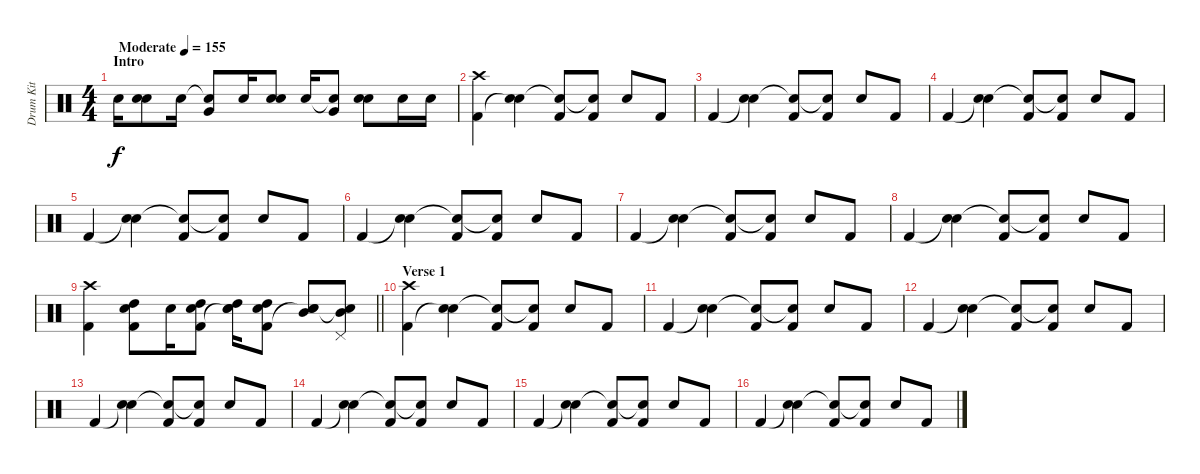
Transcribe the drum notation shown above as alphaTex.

\track ("Drum Kit" "Drum Kit") {instrument percussion}
\staff {score}
\articulation defaults
\ts (4 4)
\section ("" "Intro")
\tempo (155 "Moderate")
\clef neutral
\ks c "Snare (hit) 2".16{dy f}
("Snare (hit) 2" "Snare (hit) 2").8 "Snare (hit) 2".16 ("Snare (hit) 2"{t} "Very Low Tom (hit)").8 "Snare (hit) 2".16 ("Snare (hit) 2" "Snare (hit) 2").8 "Snare (hit) 2".16 ("Snare (hit) 2"{t} "Very Low Tom (hit)").8 ("Snare (hit) 2" "Snare (hit) 2").8 "Snare (hit) 2".16 "Snare (hit) 2".16 |
("Kick (hit) 2" "Crash high (hit)").4 ("Snare (hit)"{t} "Snare (hit) 2").4 ("Kick (hit) 2" "Snare (hit)"{t}).8 ("Kick (hit) 2" "Snare (hit)"{t}).8 "Snare (hit) 2".8 "Kick (hit) 2".8 |
"Kick (hit) 2".4 ("Snare (hit)"{t} "Snare (hit) 2").4 ("Kick (hit) 2" "Snare (hit)"{t}).8 ("Kick (hit) 2" "Snare (hit)"{t}).8 "Snare (hit) 2".8 "Kick (hit) 2".8 |
"Kick (hit) 2".4 ("Snare (hit)"{t} "Snare (hit) 2").4 ("Kick (hit) 2" "Snare (hit)"{t}).8 ("Kick (hit) 2" "Snare (hit)"{t}).8 "Snare (hit) 2".8 "Kick (hit) 2".8 |
"Kick (hit) 2".4 ("Snare (hit)"{t} "Snare (hit) 2").4 ("Kick (hit) 2" "Snare (hit)"{t}).8 ("Kick (hit) 2" "Snare (hit)"{t}).8 "Snare (hit) 2".8 "Kick (hit) 2".8 |
"Kick (hit) 2".4 ("Snare (hit)"{t} "Snare (hit) 2").4 ("Kick (hit) 2" "Snare (hit)"{t}).8 ("Kick (hit) 2" "Snare (hit)"{t}).8 "Snare (hit) 2".8 "Kick (hit) 2".8 |
"Kick (hit) 2".4 ("Snare (hit)"{t} "Snare (hit) 2").4 ("Kick (hit) 2" "Snare (hit)"{t}).8 ("Kick (hit) 2" "Snare (hit)"{t}).8 "Snare (hit) 2".8 "Kick (hit) 2".8 |
"Kick (hit) 2".4 ("Snare (hit)"{t} "Snare (hit) 2").4 ("Kick (hit) 2" "Snare (hit)"{t}).8 ("Kick (hit) 2" "Snare (hit)"{t}).8 "Snare (hit) 2".8 "Kick (hit) 2".8 |
\barLineRight lightlight
("Kick (hit) 2" "Crash high (hit)").4 ("Kick (hit) 2" "High Tom (hit)" "Snare (hit) 2").8 "Snare (hit) 2".16 ("Kick (hit) 2" "High Tom (hit)" "Snare (hit) 2").8 ("Snare (hit)"{t} "High Tom (hit)" "Snare (hit) 2").16 ("Kick (hit) 2" "High Tom (hit)" "Snare (hit) 2").8 ("Snare (hit)"{t} "Mid Tom (hit)" "Snare (hit) 2").8 ("Snare (hit)"{t} "Mid Tom (hit)" "Pedal Hi-Hat (hit)").8 |
\section ("" "Verse 1")
("Kick (hit) 2" "Crash high (hit)").4 ("Snare (hit)"{t} "Snare (hit) 2").4 ("Kick (hit) 2" "Snare (hit)"{t}).8 ("Kick (hit) 2" "Snare (hit)"{t}).8 "Snare (hit) 2".8 "Kick (hit) 2".8 |
"Kick (hit) 2".4 ("Snare (hit)"{t} "Snare (hit) 2").4 ("Kick (hit) 2" "Snare (hit)"{t}).8 ("Kick (hit) 2" "Snare (hit)"{t}).8 "Snare (hit) 2".8 "Kick (hit) 2".8 |
"Kick (hit) 2".4 ("Snare (hit)"{t} "Snare (hit) 2").4 ("Kick (hit) 2" "Snare (hit)"{t}).8 ("Kick (hit) 2" "Snare (hit)"{t}).8 "Snare (hit) 2".8 "Kick (hit) 2".8 |
"Kick (hit) 2".4 ("Snare (hit)"{t} "Snare (hit) 2").4 ("Kick (hit) 2" "Snare (hit)"{t}).8 ("Kick (hit) 2" "Snare (hit)"{t}).8 "Snare (hit) 2".8 "Kick (hit) 2".8 |
"Kick (hit) 2".4 ("Snare (hit)"{t} "Snare (hit) 2").4 ("Kick (hit) 2" "Snare (hit)"{t}).8 ("Kick (hit) 2" "Snare (hit)"{t}).8 "Snare (hit) 2".8 "Kick (hit) 2".8 |
"Kick (hit) 2".4 ("Snare (hit)"{t} "Snare (hit) 2").4 ("Kick (hit) 2" "Snare (hit)"{t}).8 ("Kick (hit) 2" "Snare (hit)"{t}).8 "Snare (hit) 2".8 "Kick (hit) 2".8 |
"Kick (hit) 2".4 ("Snare (hit)"{t} "Snare (hit) 2").4 ("Kick (hit) 2" "Snare (hit)"{t}).8 ("Kick (hit) 2" "Snare (hit)"{t}).8 "Snare (hit) 2".8 "Kick (hit) 2".8
